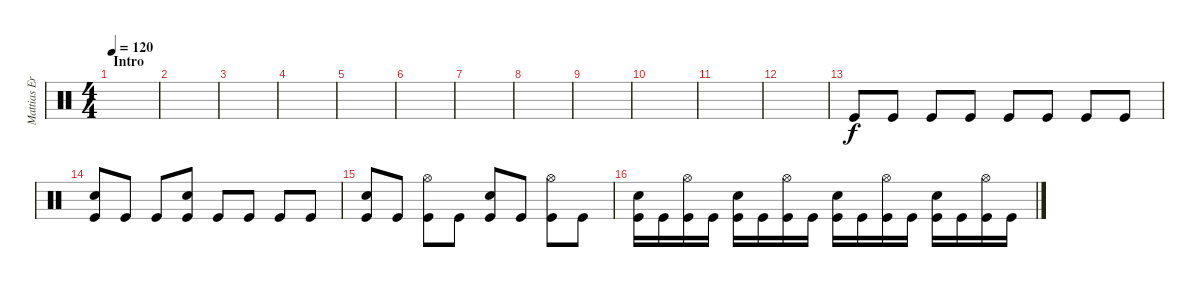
\track ("Mattias Eriksson" "Mattias Er") {instrument percussion}
\staff {score}
\articulation defaults
\ts (4 4)
\section ("" "Intro")
\tempo 120
\clef neutral
\ks c
|
|
|
|
|
|
|
|
|
|
|
|
"Kick (hit)".8 "Kick (hit)".8 "Kick (hit)".8 "Kick (hit)".8 "Kick (hit)".8 "Kick (hit)".8 "Kick (hit)".8 "Kick (hit)".8 |
("Electric Snare (hit)" "Kick (hit)").8 "Kick (hit)".8 "Kick (hit)".8 ("Electric Snare (hit)" "Kick (hit)").8 "Kick (hit)".8 "Kick (hit)".8 "Kick (hit)".8 "Kick (hit)".8 |
("Electric Snare (hit)" "Kick (hit)").8 "Kick (hit)".8 ("Hi-Hat (open)" "Kick (hit)").8 "Kick (hit)".8 ("Electric Snare (hit)" "Kick (hit)").8 "Kick (hit)".8 ("Hi-Hat (open)" "Kick (hit)").8 "Kick (hit)".8 |
("Electric Snare (hit)" "Kick (hit)").16 "Kick (hit)".16 ("Hi-Hat (open)" "Kick (hit)").16 "Kick (hit)".16 ("Electric Snare (hit)" "Kick (hit)").16 "Kick (hit)".16 ("Hi-Hat (open)" "Kick (hit)").16 "Kick (hit)".16 ("Electric Snare (hit)" "Kick (hit)").16 "Kick (hit)".16 ("Hi-Hat (open)" "Kick (hit)").16 "Kick (hit)".16 ("Electric Snare (hit)" "Kick (hit)").16 "Kick (hit)".16 ("Hi-Hat (open)" "Kick (hit)").16 "Kick (hit)".16
